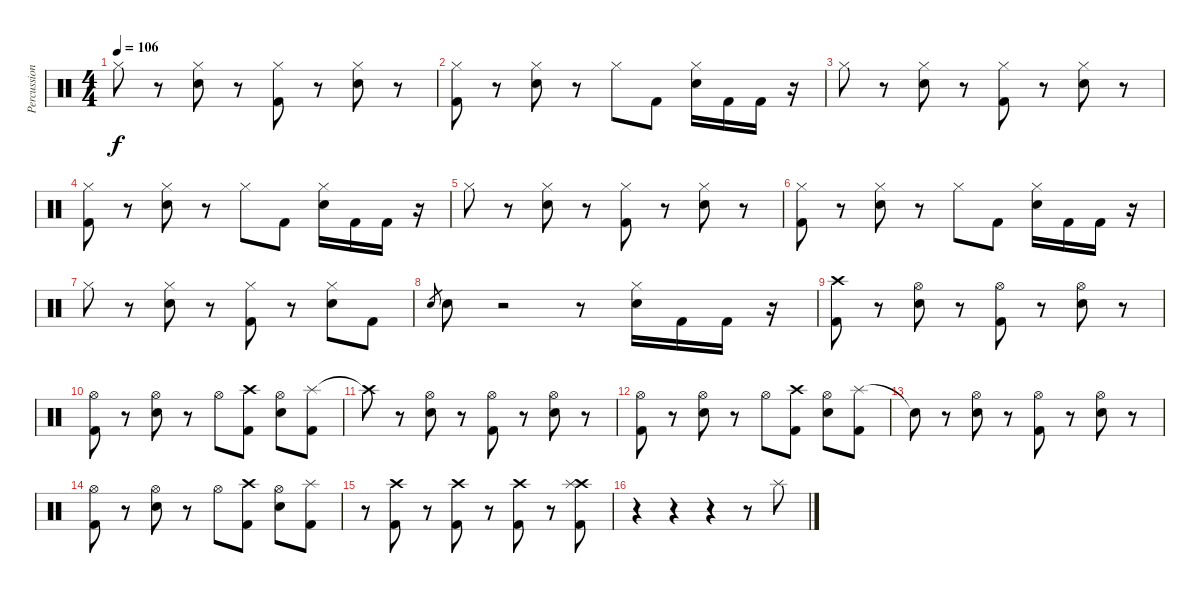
\track ("Percussion" "Percussion") {instrument percussion}
\staff {score}
\articulation defaults
\ts (4 4)
\tempo 106
\clef neutral
\ks c "Hi-Hat (closed)".8{dy f}
r.8 ("Hi-Hat (closed)" "Snare (hit) 2").8 r.8 ("Hi-Hat (closed)" "Kick (hit) 2").8 r.8 ("Hi-Hat (closed)" "Snare (hit) 2").8 r.8 |
("Hi-Hat (closed)" "Kick (hit) 2").8 r.8 ("Hi-Hat (closed)" "Snare (hit) 2").8 r.8 "Hi-Hat (closed)".8 "Kick (hit) 2".8 ("Hi-Hat (closed)" "Snare (hit) 2").16 "Kick (hit) 2".16 "Kick (hit) 2".16 r.16 |
"Hi-Hat (closed)".8 r.8 ("Hi-Hat (closed)" "Snare (hit) 2").8 r.8 ("Hi-Hat (closed)" "Kick (hit) 2").8 r.8 ("Hi-Hat (closed)" "Snare (hit) 2").8 r.8 |
("Hi-Hat (closed)" "Kick (hit) 2").8 r.8 ("Hi-Hat (closed)" "Snare (hit) 2").8 r.8 "Hi-Hat (closed)".8 "Kick (hit) 2".8 ("Hi-Hat (closed)" "Snare (hit) 2").16 "Kick (hit) 2".16 "Kick (hit) 2".16 r.16 |
"Hi-Hat (closed)".8 r.8 ("Hi-Hat (closed)" "Snare (hit) 2").8 r.8 ("Hi-Hat (closed)" "Kick (hit) 2").8 r.8 ("Hi-Hat (closed)" "Snare (hit) 2").8 r.8 |
("Hi-Hat (closed)" "Kick (hit) 2").8 r.8 ("Hi-Hat (closed)" "Snare (hit) 2").8 r.8 "Hi-Hat (closed)".8 "Kick (hit) 2".8 ("Hi-Hat (closed)" "Snare (hit) 2").16 "Kick (hit) 2".16 "Kick (hit) 2".16 r.16 |
"Hi-Hat (closed)".8 r.8 ("Hi-Hat (closed)" "Snare (hit) 2").8 r.8 ("Hi-Hat (closed)" "Kick (hit) 2").8 r.8 ("Hi-Hat (closed)" "Snare (hit) 2").8 "Kick (hit) 2".8 |
"Snare (hit) 2".8{gr} "Snare (hit) 2".8 r.2 r.8 ("Hi-Hat (closed)" "Snare (hit) 2").16 "Kick (hit) 2".16 "Kick (hit) 2".16 r.16 |
("Crash high (hit)" "Kick (hit) 2").8 r.8 ("Hi-Hat (open)" "Snare (hit) 2").8 r.8 ("Hi-Hat (open)" "Kick (hit) 2").8 r.8 ("Hi-Hat (open)" "Snare (hit) 2").8 r.8 |
("Hi-Hat (open)" "Kick (hit) 2").8 r.8 ("Hi-Hat (open)" "Snare (hit) 2").8 r.8 "Hi-Hat (open)".8 ("Crash high (hit)" "Kick (hit) 2").8 ("Hi-Hat (open)" "Snare (hit) 2").8 ("Splash (hit)" "Kick (hit) 2").8 |
"Crash high (hit)"{t}.8 r.8 ("Hi-Hat (open)" "Snare (hit) 2").8 r.8 ("Hi-Hat (open)" "Kick (hit) 2").8 r.8 ("Hi-Hat (open)" "Snare (hit) 2").8 r.8 |
("Hi-Hat (open)" "Kick (hit) 2").8 r.8 ("Hi-Hat (open)" "Snare (hit) 2").8 r.8 "Hi-Hat (open)".8 ("Crash high (hit)" "Kick (hit) 2").8 ("Hi-Hat (open)" "Snare (hit) 2").8 ("Splash (hit)" "Kick (hit) 2").8 |
"Snare (hit)"{t}.8 r.8 ("Hi-Hat (open)" "Snare (hit) 2").8 r.8 ("Hi-Hat (open)" "Kick (hit) 2").8 r.8 ("Hi-Hat (open)" "Snare (hit) 2").8 r.8 |
("Hi-Hat (open)" "Kick (hit) 2").8 r.8 ("Hi-Hat (open)" "Snare (hit) 2").8 r.8 "Hi-Hat (open)".8 ("Crash high (hit)" "Kick (hit) 2").8 ("Hi-Hat (open)" "Snare (hit) 2").8 ("Splash (hit)" "Kick (hit) 2").8 |
r.8 ("Crash high (hit)" "Kick (hit) 2").8 r.8 ("Crash high (hit)" "Kick (hit) 2").8 r.8 ("Crash high (hit)" "Kick (hit) 2").8 r.8 ("Crash high (hit)" "Splash (hit)" "Kick (hit) 2").8 |
r.4 r.4 r.4 r.8 "Splash (hit)".8
